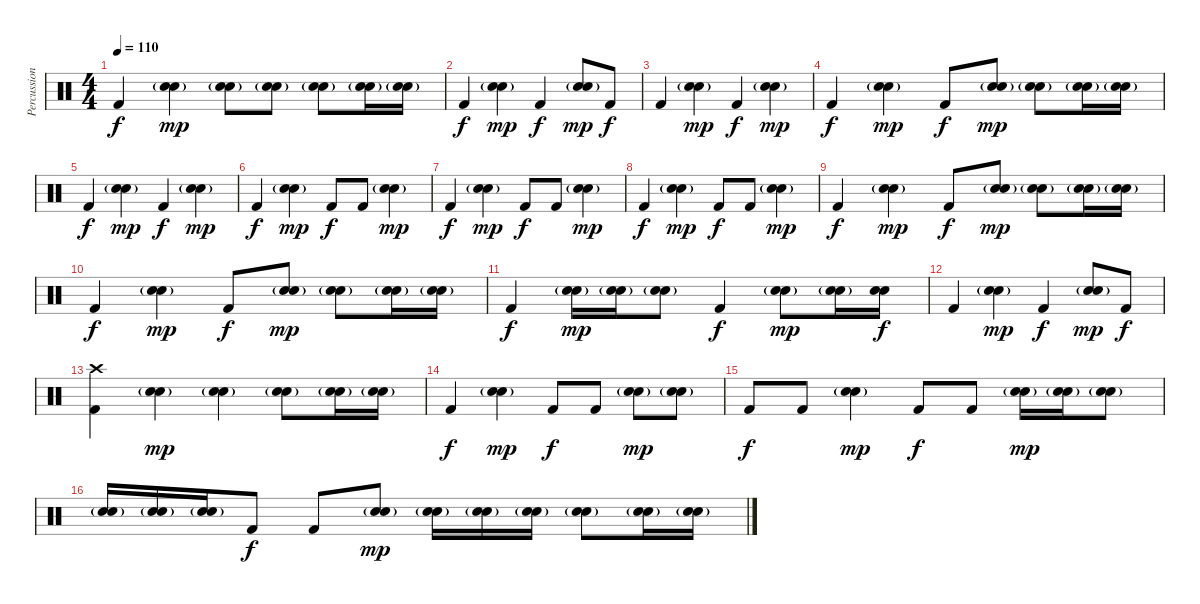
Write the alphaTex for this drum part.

\track ("Percussion" "Percussion") {instrument percussion}
\staff {score}
\articulation defaults
\ts (4 4)
\tempo 110
\clef neutral
\ks c "Kick (hit) 2".4{dy f}
("Electric Snare (hit)" "Snare (hit) 2"{g}).4{dy mp} ("Electric Snare (hit)" "Snare (hit) 2"{g}).8 ("Electric Snare (hit)"{g} "Snare (hit) 2"{g}).8 ("Electric Snare (hit)" "Snare (hit) 2"{g}).8 ("Electric Snare (hit)"{g} "Snare (hit) 2"{g}).16 ("Electric Snare (hit)" "Snare (hit) 2"{g}).16 |
"Kick (hit) 2".4{dy f} ("Electric Snare (hit)" "Snare (hit) 2"{g}).4{dy mp} "Kick (hit) 2".4{dy f} ("Electric Snare (hit)" "Snare (hit) 2"{g}).8{dy mp} "Kick (hit) 2".8{dy f} |
"Kick (hit) 2".4 ("Electric Snare (hit)" "Snare (hit) 2"{g}).4{dy mp} "Kick (hit) 2".4{dy f} ("Electric Snare (hit)" "Snare (hit) 2"{g}).4{dy mp} |
"Kick (hit) 2".4{dy f} ("Electric Snare (hit)" "Snare (hit) 2"{g}).4{dy mp} "Kick (hit) 2".8{dy f} ("Electric Snare (hit)" "Snare (hit) 2"{g}).8{dy mp} ("Electric Snare (hit)" "Snare (hit) 2"{g}).8 ("Electric Snare (hit)"{g} "Snare (hit) 2"{g}).16 ("Electric Snare (hit)" "Snare (hit) 2"{g}).16 |
"Kick (hit) 2".4{dy f} ("Electric Snare (hit)" "Snare (hit) 2"{g}).4{dy mp} "Kick (hit) 2".4{dy f} ("Electric Snare (hit)" "Snare (hit) 2"{g}).4{dy mp} |
"Kick (hit) 2".4{dy f} ("Electric Snare (hit)" "Snare (hit) 2"{g}).4{dy mp} "Kick (hit) 2".8{dy f} "Kick (hit) 2".8 ("Electric Snare (hit)" "Snare (hit) 2"{g}).4{dy mp} |
"Kick (hit) 2".4{dy f} ("Electric Snare (hit)" "Snare (hit) 2"{g}).4{dy mp} "Kick (hit) 2".8{dy f} "Kick (hit) 2".8 ("Electric Snare (hit)" "Snare (hit) 2"{g}).4{dy mp} |
"Kick (hit) 2".4{dy f} ("Electric Snare (hit)" "Snare (hit) 2"{g}).4{dy mp} "Kick (hit) 2".8{dy f} "Kick (hit) 2".8 ("Electric Snare (hit)" "Snare (hit) 2"{g}).4{dy mp} |
"Kick (hit) 2".4{dy f} ("Electric Snare (hit)" "Snare (hit) 2"{g}).4{dy mp} "Kick (hit) 2".8{dy f} ("Electric Snare (hit)" "Snare (hit) 2"{g}).8{dy mp} ("Electric Snare (hit)" "Snare (hit) 2"{g}).8 ("Electric Snare (hit)"{g} "Snare (hit) 2"{g}).16 ("Electric Snare (hit)" "Snare (hit) 2"{g}).16 |
"Kick (hit) 2".4{dy f} ("Electric Snare (hit)" "Snare (hit) 2"{g}).4{dy mp} "Kick (hit) 2".8{dy f} ("Electric Snare (hit)" "Snare (hit) 2"{g}).8{dy mp} ("Electric Snare (hit)" "Snare (hit) 2"{g}).8 ("Electric Snare (hit)"{g} "Snare (hit) 2"{g}).16 ("Electric Snare (hit)" "Snare (hit) 2"{g}).16 |
"Kick (hit) 2".4{dy f} ("Electric Snare (hit)" "Snare (hit) 2"{g}).16{dy mp} ("Electric Snare (hit)"{g} "Snare (hit) 2"{g}).16 ("Electric Snare (hit)" "Snare (hit) 2"{g}).8 "Kick (hit) 2".4{dy f} ("Electric Snare (hit)" "Snare (hit) 2"{g}).8{dy mp} ("Electric Snare (hit)"{g} "Snare (hit) 2"{g}).16 ("Electric Snare (hit)" "Snare (hit) 2").16{dy f} |
"Kick (hit) 2".4 ("Electric Snare (hit)" "Snare (hit) 2"{g}).4{dy mp} "Kick (hit) 2".4{dy f} ("Electric Snare (hit)" "Snare (hit) 2"{g}).8{dy mp} "Kick (hit) 2".8{dy f} |
("Kick (hit) 2" "Crash high (hit)").4 ("Electric Snare (hit)" "Snare (hit) 2"{g}).4{dy mp} ("Electric Snare (hit)" "Snare (hit) 2"{g}).4 ("Electric Snare (hit)" "Snare (hit) 2"{g}).8 ("Electric Snare (hit)"{g} "Snare (hit) 2"{g}).16 ("Electric Snare (hit)" "Snare (hit) 2"{g}).16 |
"Kick (hit) 2".4{dy f} ("Electric Snare (hit)" "Snare (hit) 2"{g}).4{dy mp} "Kick (hit) 2".8{dy f} "Kick (hit) 2".8 ("Electric Snare (hit)" "Snare (hit) 2"{g}).8{dy mp} ("Electric Snare (hit)"{g} "Snare (hit) 2"{g}).8 |
"Kick (hit) 2".8{dy f} "Kick (hit) 2".8 ("Electric Snare (hit)" "Snare (hit) 2"{g}).4{dy mp} "Kick (hit) 2".8{dy f} "Kick (hit) 2".8 ("Electric Snare (hit)" "Snare (hit) 2"{g}).16{dy mp} ("Electric Snare (hit)"{g} "Snare (hit) 2"{g}).16 ("Electric Snare (hit)" "Snare (hit) 2"{g}).8 |
("Electric Snare (hit)" "Snare (hit) 2"{g}).16 ("Electric Snare (hit)"{g} "Snare (hit) 2"{g}).16 ("Electric Snare (hit)" "Snare (hit) 2"{g}).16 "Kick (hit) 2".8{dy f} "Kick (hit) 2".8 ("Electric Snare (hit)" "Snare (hit) 2"{g}).8{dy mp} ("Electric Snare (hit)"{g} "Snare (hit) 2"{g}).16 ("Electric Snare (hit)" "Snare (hit) 2"{g}).16 ("Electric Snare (hit)"{g} "Snare (hit) 2"{g}).16 ("Electric Snare (hit)" "Snare (hit) 2"{g}).8 ("Electric Snare (hit)"{g} "Snare (hit) 2"{g}).16 ("Electric Snare (hit)" "Snare (hit) 2"{g}).16
